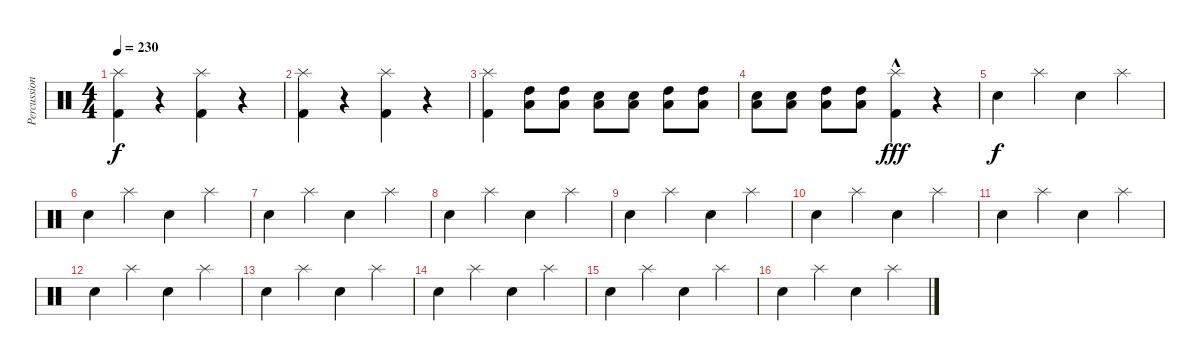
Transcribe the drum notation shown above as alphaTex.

\track ("Percussion" "Percussion") {instrument percussion}
\staff {score}
\articulation defaults
\ts (4 4)
\tempo 230
\clef neutral
\ks c
("Kick (hit) 2" "Splash (hit)").4{dy f} r.4 ("Kick (hit) 2" "Splash (hit)").4 r.4 |
("Kick (hit) 2" "Splash (hit)").4 r.4 ("Kick (hit) 2" "Splash (hit)").4 r.4 |
("Kick (hit) 2" "Splash (hit)").4 ("Low Tom (hit)" "High Tom (hit)").8 ("Low Tom (hit)" "High Tom (hit)").8 ("Snare (hit) 2" "Low Floor Tom (hit)").8 ("Snare (hit) 2" "Low Floor Tom (hit)").8 ("Low Tom (hit)" "High Tom (hit)").8 ("Low Tom (hit)" "High Tom (hit)").8 |
("Snare (hit) 2" "Low Floor Tom (hit)").8 ("Snare (hit) 2" "Low Floor Tom (hit)").8 ("Low Tom (hit)" "High Tom (hit)").8 ("Low Tom (hit)" "High Tom (hit)").8 ("Kick (hit) 2"{hac} "Splash (hit)"{hac}).4{dy fff} r.4 |
"Snare (hit) 2".4{dy f} "Splash (hit)".4 "Snare (hit) 2".4 "Splash (hit)".4 |
"Snare (hit) 2".4 "Splash (hit)".4 "Snare (hit) 2".4 "Splash (hit)".4 |
"Snare (hit) 2".4 "Splash (hit)".4 "Snare (hit) 2".4 "Splash (hit)".4 |
"Snare (hit) 2".4 "Splash (hit)".4 "Snare (hit) 2".4 "Splash (hit)".4 |
"Snare (hit) 2".4 "Splash (hit)".4 "Snare (hit) 2".4 "Splash (hit)".4 |
"Snare (hit) 2".4 "Splash (hit)".4 "Snare (hit) 2".4 "Splash (hit)".4 |
"Snare (hit) 2".4 "Splash (hit)".4 "Snare (hit) 2".4 "Splash (hit)".4 |
"Snare (hit) 2".4 "Splash (hit)".4 "Snare (hit) 2".4 "Splash (hit)".4 |
"Snare (hit) 2".4 "Splash (hit)".4 "Snare (hit) 2".4 "Splash (hit)".4 |
"Snare (hit) 2".4 "Splash (hit)".4 "Snare (hit) 2".4 "Splash (hit)".4 |
"Snare (hit) 2".4 "Splash (hit)".4 "Snare (hit) 2".4 "Splash (hit)".4 |
"Snare (hit) 2".4 "Splash (hit)".4 "Snare (hit) 2".4 "Splash (hit)".4
